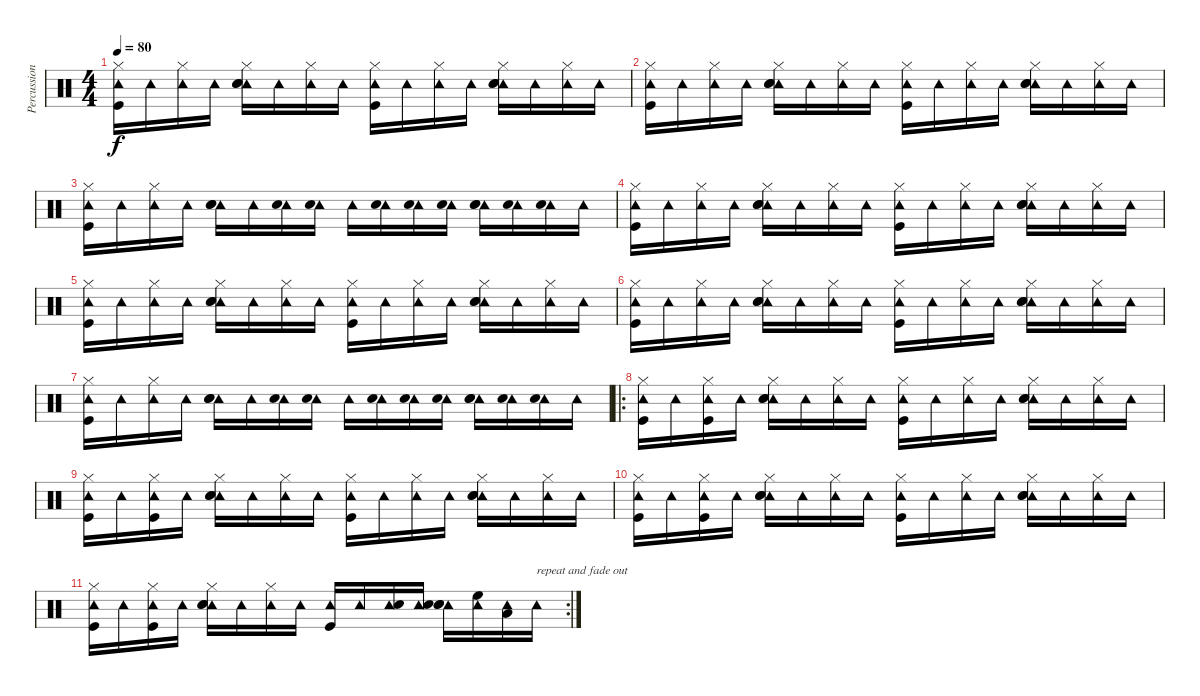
\track ("Percussion" "Percussion") {instrument percussion}
\staff {score}
\articulation defaults
\ts (4 4)
\tempo 80
\clef neutral
\ks c
("Hi-Hat (closed)" "Tambourine (hit)" "Kick (hit)").16{dy f} "Tambourine (hit)".16 ("Hi-Hat (closed)" "Tambourine (hit)").16 "Tambourine (hit)".16 ("Hi-Hat (closed)" "Tambourine (hit)" "Snare (hit) 2" "Hand Clap (hit)").16 "Tambourine (hit)".16 ("Hi-Hat (closed)" "Tambourine (hit)").16 "Tambourine (hit)".16 ("Hi-Hat (closed)" "Tambourine (hit)" "Kick (hit)").16 "Tambourine (hit)".16 ("Hi-Hat (closed)" "Tambourine (hit)").16 "Tambourine (hit)".16 ("Hi-Hat (closed)" "Tambourine (hit)" "Snare (hit) 2" "Hand Clap (hit)").16 "Tambourine (hit)".16 ("Hi-Hat (closed)" "Tambourine (hit)").16 "Tambourine (hit)".16 |
("Hi-Hat (closed)" "Tambourine (hit)" "Kick (hit)").16 "Tambourine (hit)".16 ("Hi-Hat (closed)" "Tambourine (hit)").16 "Tambourine (hit)".16 ("Hi-Hat (closed)" "Tambourine (hit)" "Snare (hit) 2" "Hand Clap (hit)").16 "Tambourine (hit)".16 ("Hi-Hat (closed)" "Tambourine (hit)").16 "Tambourine (hit)".16 ("Hi-Hat (closed)" "Tambourine (hit)" "Kick (hit)").16 "Tambourine (hit)".16 ("Hi-Hat (closed)" "Tambourine (hit)").16 "Tambourine (hit)".16 ("Hi-Hat (closed)" "Tambourine (hit)" "Snare (hit) 2" "Hand Clap (hit)").16 "Tambourine (hit)".16 ("Hi-Hat (closed)" "Tambourine (hit)").16 "Tambourine (hit)".16 |
("Hi-Hat (closed)" "Tambourine (hit)" "Kick (hit)").16 "Tambourine (hit)".16 ("Hi-Hat (closed)" "Tambourine (hit)").16 "Tambourine (hit)".16 ("Tambourine (hit)" "Snare (hit) 2" "Hand Clap (hit)").16 "Tambourine (hit)".16 ("Tambourine (hit)" "Snare (hit) 2").16 ("Tambourine (hit)" "Snare (hit) 2").16 "Tambourine (hit)".16 ("Tambourine (hit)" "Snare (hit) 2").16 ("Tambourine (hit)" "Snare (hit) 2").16 ("Tambourine (hit)" "Snare (hit) 2").16 ("Tambourine (hit)" "Snare (hit) 2" "Hand Clap (hit)").16 ("Tambourine (hit)" "Snare (hit) 2").16 ("Tambourine (hit)" "Snare (hit) 2").16 "Tambourine (hit)".16 |
("Hi-Hat (closed)" "Tambourine (hit)" "Kick (hit)").16 "Tambourine (hit)".16 ("Hi-Hat (closed)" "Tambourine (hit)").16 "Tambourine (hit)".16 ("Hi-Hat (closed)" "Tambourine (hit)" "Snare (hit) 2" "Hand Clap (hit)").16 "Tambourine (hit)".16 ("Hi-Hat (closed)" "Tambourine (hit)").16 "Tambourine (hit)".16 ("Hi-Hat (closed)" "Tambourine (hit)" "Kick (hit)").16 "Tambourine (hit)".16 ("Hi-Hat (closed)" "Tambourine (hit)").16 "Tambourine (hit)".16 ("Hi-Hat (closed)" "Tambourine (hit)" "Snare (hit) 2" "Hand Clap (hit)").16 "Tambourine (hit)".16 ("Hi-Hat (closed)" "Tambourine (hit)").16 "Tambourine (hit)".16 |
("Hi-Hat (closed)" "Tambourine (hit)" "Kick (hit)").16 "Tambourine (hit)".16 ("Hi-Hat (closed)" "Tambourine (hit)").16 "Tambourine (hit)".16 ("Hi-Hat (closed)" "Tambourine (hit)" "Snare (hit) 2" "Hand Clap (hit)").16 "Tambourine (hit)".16 ("Hi-Hat (closed)" "Tambourine (hit)").16 "Tambourine (hit)".16 ("Hi-Hat (closed)" "Tambourine (hit)" "Kick (hit)").16 "Tambourine (hit)".16 ("Hi-Hat (closed)" "Tambourine (hit)").16 "Tambourine (hit)".16 ("Hi-Hat (closed)" "Tambourine (hit)" "Snare (hit) 2" "Hand Clap (hit)").16 "Tambourine (hit)".16 ("Hi-Hat (closed)" "Tambourine (hit)").16 "Tambourine (hit)".16 |
("Hi-Hat (closed)" "Tambourine (hit)" "Kick (hit)").16 "Tambourine (hit)".16 ("Hi-Hat (closed)" "Tambourine (hit)").16 "Tambourine (hit)".16 ("Hi-Hat (closed)" "Tambourine (hit)" "Snare (hit) 2" "Hand Clap (hit)").16 "Tambourine (hit)".16 ("Hi-Hat (closed)" "Tambourine (hit)").16 "Tambourine (hit)".16 ("Hi-Hat (closed)" "Tambourine (hit)" "Kick (hit)").16 "Tambourine (hit)".16 ("Hi-Hat (closed)" "Tambourine (hit)").16 "Tambourine (hit)".16 ("Hi-Hat (closed)" "Tambourine (hit)" "Snare (hit) 2" "Hand Clap (hit)").16 "Tambourine (hit)".16 ("Hi-Hat (closed)" "Tambourine (hit)").16 "Tambourine (hit)".16 |
("Hi-Hat (closed)" "Tambourine (hit)" "Kick (hit)").16 "Tambourine (hit)".16 ("Hi-Hat (closed)" "Tambourine (hit)").16 "Tambourine (hit)".16 ("Tambourine (hit)" "Snare (hit) 2" "Hand Clap (hit)").16 "Tambourine (hit)".16 ("Tambourine (hit)" "Snare (hit) 2").16 ("Tambourine (hit)" "Snare (hit) 2").16 "Tambourine (hit)".16 ("Tambourine (hit)" "Snare (hit) 2").16 ("Tambourine (hit)" "Snare (hit) 2").16 ("Tambourine (hit)" "Snare (hit) 2").16 ("Tambourine (hit)" "Snare (hit) 2" "Hand Clap (hit)").16 ("Tambourine (hit)" "Snare (hit) 2").16 ("Tambourine (hit)" "Snare (hit) 2").16 "Tambourine (hit)".16 |
\ro
("Hi-Hat (closed)" "Tambourine (hit)" "Kick (hit)").16 "Tambourine (hit)".16 ("Hi-Hat (closed)" "Tambourine (hit)" "Kick (hit)").16 "Tambourine (hit)".16 ("Hi-Hat (closed)" "Tambourine (hit)" "Snare (hit) 2" "Hand Clap (hit)").16 "Tambourine (hit)".16 ("Hi-Hat (closed)" "Tambourine (hit)").16 "Tambourine (hit)".16 ("Hi-Hat (closed)" "Tambourine (hit)" "Kick (hit)").16 "Tambourine (hit)".16 ("Hi-Hat (closed)" "Tambourine (hit)").16 "Tambourine (hit)".16 ("Hi-Hat (closed)" "Tambourine (hit)" "Snare (hit) 2" "Hand Clap (hit)").16 "Tambourine (hit)".16 ("Hi-Hat (closed)" "Tambourine (hit)").16 "Tambourine (hit)".16 |
("Hi-Hat (closed)" "Tambourine (hit)" "Kick (hit)").16 "Tambourine (hit)".16 ("Hi-Hat (closed)" "Tambourine (hit)" "Kick (hit)").16 "Tambourine (hit)".16 ("Hi-Hat (closed)" "Tambourine (hit)" "Snare (hit) 2" "Hand Clap (hit)").16 "Tambourine (hit)".16 ("Hi-Hat (closed)" "Tambourine (hit)").16 "Tambourine (hit)".16 ("Hi-Hat (closed)" "Tambourine (hit)" "Kick (hit)").16 "Tambourine (hit)".16 ("Hi-Hat (closed)" "Tambourine (hit)").16 "Tambourine (hit)".16 ("Hi-Hat (closed)" "Tambourine (hit)" "Snare (hit) 2" "Hand Clap (hit)").16 "Tambourine (hit)".16 ("Hi-Hat (closed)" "Tambourine (hit)").16 "Tambourine (hit)".16 |
("Hi-Hat (closed)" "Tambourine (hit)" "Kick (hit)").16 "Tambourine (hit)".16 ("Hi-Hat (closed)" "Tambourine (hit)" "Kick (hit)").16 "Tambourine (hit)".16 ("Hi-Hat (closed)" "Tambourine (hit)" "Snare (hit) 2" "Hand Clap (hit)").16 "Tambourine (hit)".16 ("Hi-Hat (closed)" "Tambourine (hit)").16 "Tambourine (hit)".16 ("Hi-Hat (closed)" "Tambourine (hit)" "Kick (hit)").16 "Tambourine (hit)".16 ("Hi-Hat (closed)" "Tambourine (hit)").16 "Tambourine (hit)".16 ("Hi-Hat (closed)" "Tambourine (hit)" "Snare (hit) 2" "Hand Clap (hit)").16 "Tambourine (hit)".16 ("Hi-Hat (closed)" "Tambourine (hit)").16 "Tambourine (hit)".16 |
\rc 2
("Hi-Hat (closed)" "Tambourine (hit)" "Kick (hit)").16 "Tambourine (hit)".16 ("Hi-Hat (closed)" "Tambourine (hit)" "Kick (hit)").16 "Tambourine (hit)".16 ("Hi-Hat (closed)" "Tambourine (hit)" "Snare (hit) 2" "Hand Clap (hit)").16 "Tambourine (hit)".16 ("Hi-Hat (closed)" "Tambourine (hit)").16 "Tambourine (hit)".16 ("Tambourine (hit)" "Kick (hit)").16 "Tambourine (hit)".16 ("Tambourine (hit)" "Snare (hit) 2").16 ("Tambourine (hit)" "Snare (hit) 2").16 ("Tambourine (hit)" "Snare (hit) 2" "Hand Clap (hit)").16 ("Tambourine (hit)" "High Floor Tom (hit)").16 ("Tambourine (hit)" "Low Tom (hit)").16 "Tambourine (hit)".16{txt "repeat and fade out"}
